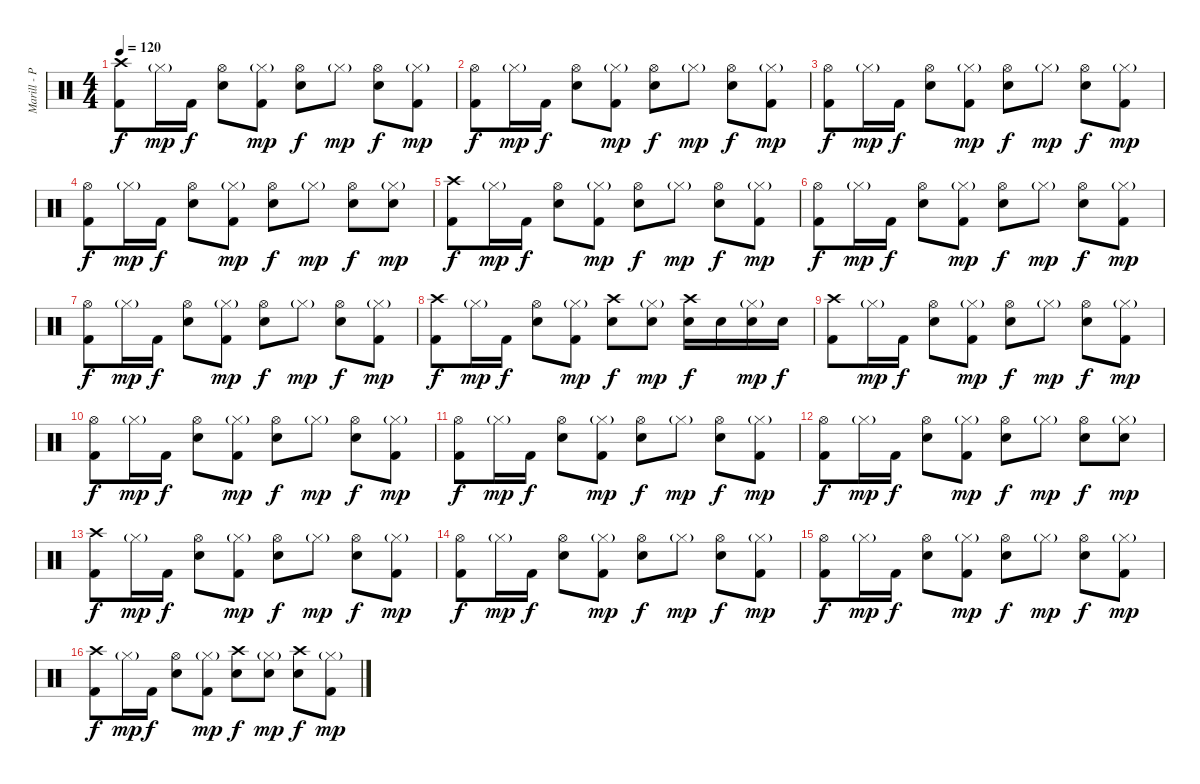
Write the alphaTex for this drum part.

\track ("Marill - Percussion" "Marill - P") {instrument percussion}
\staff {score}
\articulation defaults
\ts (4 4)
\tempo 120
\clef neutral
\ks c
("Crash high (hit)" "Kick (hit) 2").8{dy f} "Hi-Hat (closed)"{g}.16{dy mp} "Kick (hit) 2".16{dy f} ("Hi-Hat (open)" "Snare (hit) 2").8 ("Hi-Hat (closed)"{g} "Kick (hit) 2").8{dy mp} ("Hi-Hat (open)" "Snare (hit) 2").8{dy f} "Hi-Hat (closed)"{g}.8{dy mp} ("Hi-Hat (open)" "Snare (hit) 2").8{dy f} ("Hi-Hat (closed)"{g} "Kick (hit) 2").8{dy mp} |
("Hi-Hat (open)" "Kick (hit) 2").8{dy f} "Hi-Hat (closed)"{g}.16{dy mp} "Kick (hit) 2".16{dy f} ("Hi-Hat (open)" "Snare (hit) 2").8 ("Hi-Hat (closed)"{g} "Kick (hit) 2").8{dy mp} ("Hi-Hat (open)" "Snare (hit) 2").8{dy f} "Hi-Hat (closed)"{g}.8{dy mp} ("Hi-Hat (open)" "Snare (hit) 2").8{dy f} ("Hi-Hat (closed)"{g} "Kick (hit) 2").8{dy mp} |
("Hi-Hat (open)" "Kick (hit) 2").8{dy f} "Hi-Hat (closed)"{g}.16{dy mp} "Kick (hit) 2".16{dy f} ("Hi-Hat (open)" "Snare (hit) 2").8 ("Hi-Hat (closed)"{g} "Kick (hit) 2").8{dy mp} ("Hi-Hat (open)" "Snare (hit) 2").8{dy f} "Hi-Hat (closed)"{g}.8{dy mp} ("Hi-Hat (open)" "Snare (hit) 2").8{dy f} ("Hi-Hat (closed)"{g} "Kick (hit) 2").8{dy mp} |
("Hi-Hat (open)" "Kick (hit) 2").8{dy f} "Hi-Hat (closed)"{g}.16{dy mp} "Kick (hit) 2".16{dy f} ("Hi-Hat (open)" "Snare (hit) 2").8 ("Hi-Hat (closed)"{g} "Kick (hit) 2").8{dy mp} ("Hi-Hat (open)" "Snare (hit) 2").8{dy f} "Hi-Hat (closed)"{g}.8{dy mp} ("Hi-Hat (open)" "Snare (hit) 2").8{dy f} ("Hi-Hat (closed)"{g} "Snare (hit) 2").8{dy mp} |
("Crash high (hit)" "Kick (hit) 2").8{dy f} "Hi-Hat (closed)"{g}.16{dy mp} "Kick (hit) 2".16{dy f} ("Hi-Hat (open)" "Snare (hit) 2").8 ("Hi-Hat (closed)"{g} "Kick (hit) 2").8{dy mp} ("Hi-Hat (open)" "Snare (hit) 2").8{dy f} "Hi-Hat (closed)"{g}.8{dy mp} ("Hi-Hat (open)" "Snare (hit) 2").8{dy f} ("Hi-Hat (closed)"{g} "Kick (hit) 2").8{dy mp} |
("Hi-Hat (open)" "Kick (hit) 2").8{dy f} "Hi-Hat (closed)"{g}.16{dy mp} "Kick (hit) 2".16{dy f} ("Hi-Hat (open)" "Snare (hit) 2").8 ("Hi-Hat (closed)"{g} "Kick (hit) 2").8{dy mp} ("Hi-Hat (open)" "Snare (hit) 2").8{dy f} "Hi-Hat (closed)"{g}.8{dy mp} ("Hi-Hat (open)" "Snare (hit) 2").8{dy f} ("Hi-Hat (closed)"{g} "Kick (hit) 2").8{dy mp} |
("Hi-Hat (open)" "Kick (hit) 2").8{dy f} "Hi-Hat (closed)"{g}.16{dy mp} "Kick (hit) 2".16{dy f} ("Hi-Hat (open)" "Snare (hit) 2").8 ("Hi-Hat (closed)"{g} "Kick (hit) 2").8{dy mp} ("Hi-Hat (open)" "Snare (hit) 2").8{dy f} "Hi-Hat (closed)"{g}.8{dy mp} ("Hi-Hat (open)" "Snare (hit) 2").8{dy f} ("Hi-Hat (closed)"{g} "Kick (hit) 2").8{dy mp} |
("Crash high (hit)" "Kick (hit) 2").8{dy f} "Hi-Hat (closed)"{g}.16{dy mp} "Kick (hit) 2".16{dy f} ("Hi-Hat (open)" "Snare (hit) 2").8 ("Hi-Hat (closed)"{g} "Kick (hit) 2").8{dy mp} ("Crash high (hit)" "Snare (hit) 2").8{dy f} ("Hi-Hat (closed)"{g} "Snare (hit) 2").8{dy mp} ("Crash high (hit)" "Snare (hit) 2").16{dy f} "Snare (hit) 2".16 ("Hi-Hat (closed)"{g} "Snare (hit) 2").16{dy mp} "Snare (hit) 2".16{dy f} |
("Crash high (hit)" "Kick (hit) 2").8 "Hi-Hat (closed)"{g}.16{dy mp} "Kick (hit) 2".16{dy f} ("Hi-Hat (open)" "Snare (hit) 2").8 ("Hi-Hat (closed)"{g} "Kick (hit) 2").8{dy mp} ("Hi-Hat (open)" "Snare (hit) 2").8{dy f} "Hi-Hat (closed)"{g}.8{dy mp} ("Hi-Hat (open)" "Snare (hit) 2").8{dy f} ("Hi-Hat (closed)"{g} "Kick (hit) 2").8{dy mp} |
("Hi-Hat (open)" "Kick (hit) 2").8{dy f} "Hi-Hat (closed)"{g}.16{dy mp} "Kick (hit) 2".16{dy f} ("Hi-Hat (open)" "Snare (hit) 2").8 ("Hi-Hat (closed)"{g} "Kick (hit) 2").8{dy mp} ("Hi-Hat (open)" "Snare (hit) 2").8{dy f} "Hi-Hat (closed)"{g}.8{dy mp} ("Hi-Hat (open)" "Snare (hit) 2").8{dy f} ("Hi-Hat (closed)"{g} "Kick (hit) 2").8{dy mp} |
("Hi-Hat (open)" "Kick (hit) 2").8{dy f} "Hi-Hat (closed)"{g}.16{dy mp} "Kick (hit) 2".16{dy f} ("Hi-Hat (open)" "Snare (hit) 2").8 ("Hi-Hat (closed)"{g} "Kick (hit) 2").8{dy mp} ("Hi-Hat (open)" "Snare (hit) 2").8{dy f} "Hi-Hat (closed)"{g}.8{dy mp} ("Hi-Hat (open)" "Snare (hit) 2").8{dy f} ("Hi-Hat (closed)"{g} "Kick (hit) 2").8{dy mp} |
("Hi-Hat (open)" "Kick (hit) 2").8{dy f} "Hi-Hat (closed)"{g}.16{dy mp} "Kick (hit) 2".16{dy f} ("Hi-Hat (open)" "Snare (hit) 2").8 ("Hi-Hat (closed)"{g} "Kick (hit) 2").8{dy mp} ("Hi-Hat (open)" "Snare (hit) 2").8{dy f} "Hi-Hat (closed)"{g}.8{dy mp} ("Hi-Hat (open)" "Snare (hit) 2").8{dy f} ("Hi-Hat (closed)"{g} "Snare (hit) 2").8{dy mp} |
("Crash high (hit)" "Kick (hit) 2").8{dy f} "Hi-Hat (closed)"{g}.16{dy mp} "Kick (hit) 2".16{dy f} ("Hi-Hat (open)" "Snare (hit) 2").8 ("Hi-Hat (closed)"{g} "Kick (hit) 2").8{dy mp} ("Hi-Hat (open)" "Snare (hit) 2").8{dy f} "Hi-Hat (closed)"{g}.8{dy mp} ("Hi-Hat (open)" "Snare (hit) 2").8{dy f} ("Hi-Hat (closed)"{g} "Kick (hit) 2").8{dy mp} |
("Hi-Hat (open)" "Kick (hit) 2").8{dy f} "Hi-Hat (closed)"{g}.16{dy mp} "Kick (hit) 2".16{dy f} ("Hi-Hat (open)" "Snare (hit) 2").8 ("Hi-Hat (closed)"{g} "Kick (hit) 2").8{dy mp} ("Hi-Hat (open)" "Snare (hit) 2").8{dy f} "Hi-Hat (closed)"{g}.8{dy mp} ("Hi-Hat (open)" "Snare (hit) 2").8{dy f} ("Hi-Hat (closed)"{g} "Kick (hit) 2").8{dy mp} |
("Hi-Hat (open)" "Kick (hit) 2").8{dy f} "Hi-Hat (closed)"{g}.16{dy mp} "Kick (hit) 2".16{dy f} ("Hi-Hat (open)" "Snare (hit) 2").8 ("Hi-Hat (closed)"{g} "Kick (hit) 2").8{dy mp} ("Hi-Hat (open)" "Snare (hit) 2").8{dy f} "Hi-Hat (closed)"{g}.8{dy mp} ("Hi-Hat (open)" "Snare (hit) 2").8{dy f} ("Hi-Hat (closed)"{g} "Kick (hit) 2").8{dy mp} |
("Crash high (hit)" "Kick (hit) 2").8{dy f} "Hi-Hat (closed)"{g}.16{dy mp} "Kick (hit) 2".16{dy f} ("Hi-Hat (open)" "Snare (hit) 2").8 ("Hi-Hat (closed)"{g} "Kick (hit) 2").8{dy mp} ("Crash high (hit)" "Snare (hit) 2").8{dy f} ("Hi-Hat (closed)"{g} "Snare (hit) 2").8{dy mp} ("Crash high (hit)" "Snare (hit) 2").8{dy f} ("Hi-Hat (closed)"{g} "Kick (hit) 2").8{dy mp}
